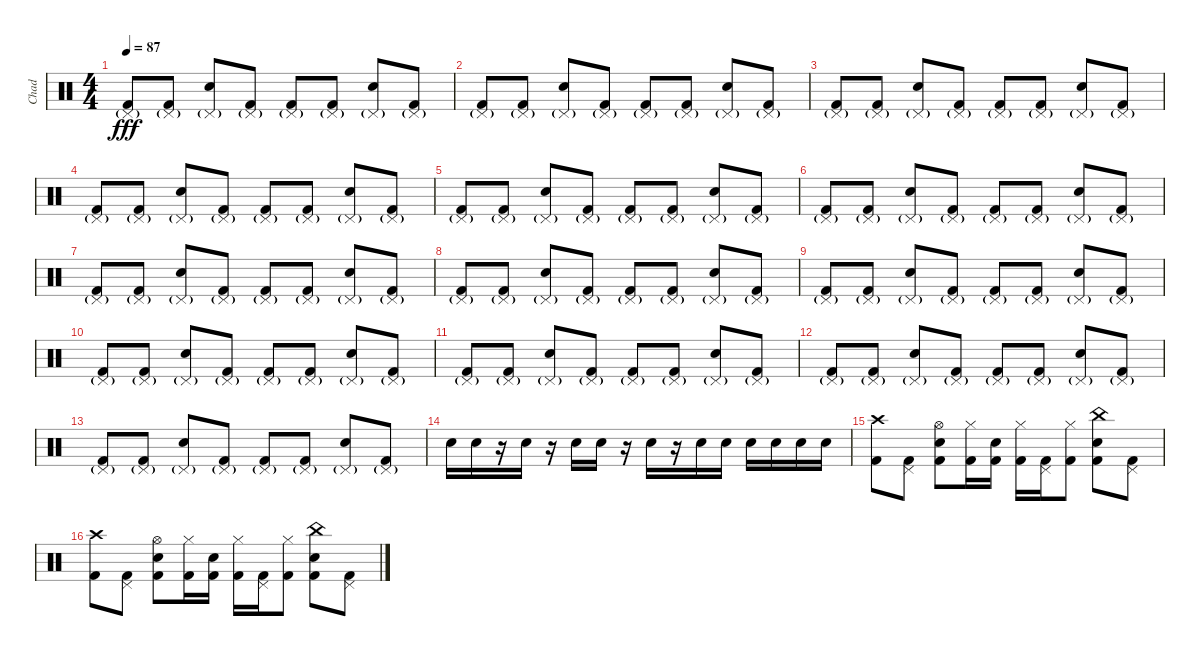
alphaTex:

\track ("Chad" "Chad") {instrument percussion}
\staff {score}
\articulation defaults
\ts (4 4)
\tempo 87
\clef neutral
\ks c
("Pedal Hi-Hat (hit)"{g} "Kick (hit) 2").8{dy fff} ("Pedal Hi-Hat (hit)"{g} "Kick (hit) 2").8 ("Pedal Hi-Hat (hit)"{g} "Snare (hit) 2").8 ("Pedal Hi-Hat (hit)"{g} "Kick (hit) 2").8 ("Pedal Hi-Hat (hit)"{g} "Kick (hit) 2").8 ("Pedal Hi-Hat (hit)"{g} "Kick (hit) 2").8 ("Pedal Hi-Hat (hit)"{g} "Snare (hit) 2").8 ("Pedal Hi-Hat (hit)"{g} "Kick (hit) 2").8 |
("Pedal Hi-Hat (hit)"{g} "Kick (hit) 2").8 ("Pedal Hi-Hat (hit)"{g} "Kick (hit) 2").8 ("Pedal Hi-Hat (hit)"{g} "Snare (hit) 2").8 ("Pedal Hi-Hat (hit)"{g} "Kick (hit) 2").8 ("Pedal Hi-Hat (hit)"{g} "Kick (hit) 2").8 ("Pedal Hi-Hat (hit)"{g} "Kick (hit) 2").8 ("Pedal Hi-Hat (hit)"{g} "Snare (hit) 2").8 ("Pedal Hi-Hat (hit)"{g} "Kick (hit) 2").8 |
("Pedal Hi-Hat (hit)"{g} "Kick (hit) 2").8 ("Pedal Hi-Hat (hit)"{g} "Kick (hit) 2").8 ("Pedal Hi-Hat (hit)"{g} "Snare (hit) 2").8 ("Pedal Hi-Hat (hit)"{g} "Kick (hit) 2").8 ("Pedal Hi-Hat (hit)"{g} "Kick (hit) 2").8 ("Pedal Hi-Hat (hit)"{g} "Kick (hit) 2").8 ("Pedal Hi-Hat (hit)"{g} "Snare (hit) 2").8 ("Pedal Hi-Hat (hit)"{g} "Kick (hit) 2").8 |
("Pedal Hi-Hat (hit)"{g} "Kick (hit) 2").8 ("Pedal Hi-Hat (hit)"{g} "Kick (hit) 2").8 ("Pedal Hi-Hat (hit)"{g} "Snare (hit) 2").8 ("Pedal Hi-Hat (hit)"{g} "Kick (hit) 2").8 ("Pedal Hi-Hat (hit)"{g} "Kick (hit) 2").8 ("Pedal Hi-Hat (hit)"{g} "Kick (hit) 2").8 ("Pedal Hi-Hat (hit)"{g} "Snare (hit) 2").8 ("Pedal Hi-Hat (hit)"{g} "Kick (hit) 2").8 |
("Pedal Hi-Hat (hit)"{g} "Kick (hit) 2").8 ("Pedal Hi-Hat (hit)"{g} "Kick (hit) 2").8 ("Pedal Hi-Hat (hit)"{g} "Snare (hit) 2").8 ("Pedal Hi-Hat (hit)"{g} "Kick (hit) 2").8 ("Pedal Hi-Hat (hit)"{g} "Kick (hit) 2").8 ("Pedal Hi-Hat (hit)"{g} "Kick (hit) 2").8 ("Pedal Hi-Hat (hit)"{g} "Snare (hit) 2").8 ("Pedal Hi-Hat (hit)"{g} "Kick (hit) 2").8 |
("Pedal Hi-Hat (hit)"{g} "Kick (hit) 2").8 ("Pedal Hi-Hat (hit)"{g} "Kick (hit) 2").8 ("Pedal Hi-Hat (hit)"{g} "Snare (hit) 2").8 ("Pedal Hi-Hat (hit)"{g} "Kick (hit) 2").8 ("Pedal Hi-Hat (hit)"{g} "Kick (hit) 2").8 ("Pedal Hi-Hat (hit)"{g} "Kick (hit) 2").8 ("Pedal Hi-Hat (hit)"{g} "Snare (hit) 2").8 ("Pedal Hi-Hat (hit)"{g} "Kick (hit) 2").8 |
("Pedal Hi-Hat (hit)"{g} "Kick (hit) 2").8 ("Pedal Hi-Hat (hit)"{g} "Kick (hit) 2").8 ("Pedal Hi-Hat (hit)"{g} "Snare (hit) 2").8 ("Pedal Hi-Hat (hit)"{g} "Kick (hit) 2").8 ("Pedal Hi-Hat (hit)"{g} "Kick (hit) 2").8 ("Pedal Hi-Hat (hit)"{g} "Kick (hit) 2").8 ("Pedal Hi-Hat (hit)"{g} "Snare (hit) 2").8 ("Pedal Hi-Hat (hit)"{g} "Kick (hit) 2").8 |
("Pedal Hi-Hat (hit)"{g} "Kick (hit) 2").8 ("Pedal Hi-Hat (hit)"{g} "Kick (hit) 2").8 ("Pedal Hi-Hat (hit)"{g} "Snare (hit) 2").8 ("Pedal Hi-Hat (hit)"{g} "Kick (hit) 2").8 ("Pedal Hi-Hat (hit)"{g} "Kick (hit) 2").8 ("Pedal Hi-Hat (hit)"{g} "Kick (hit) 2").8 ("Pedal Hi-Hat (hit)"{g} "Snare (hit) 2").8 ("Pedal Hi-Hat (hit)"{g} "Kick (hit) 2").8 |
("Pedal Hi-Hat (hit)"{g} "Kick (hit) 2").8 ("Pedal Hi-Hat (hit)"{g} "Kick (hit) 2").8 ("Pedal Hi-Hat (hit)"{g} "Snare (hit) 2").8 ("Pedal Hi-Hat (hit)"{g} "Kick (hit) 2").8 ("Pedal Hi-Hat (hit)"{g} "Kick (hit) 2").8 ("Pedal Hi-Hat (hit)"{g} "Kick (hit) 2").8 ("Pedal Hi-Hat (hit)"{g} "Snare (hit) 2").8 ("Pedal Hi-Hat (hit)"{g} "Kick (hit) 2").8 |
("Pedal Hi-Hat (hit)"{g} "Kick (hit) 2").8 ("Pedal Hi-Hat (hit)"{g} "Kick (hit) 2").8 ("Pedal Hi-Hat (hit)"{g} "Snare (hit) 2").8 ("Pedal Hi-Hat (hit)"{g} "Kick (hit) 2").8 ("Pedal Hi-Hat (hit)"{g} "Kick (hit) 2").8 ("Pedal Hi-Hat (hit)"{g} "Kick (hit) 2").8 ("Pedal Hi-Hat (hit)"{g} "Snare (hit) 2").8 ("Pedal Hi-Hat (hit)"{g} "Kick (hit) 2").8 |
("Pedal Hi-Hat (hit)"{g} "Kick (hit) 2").8 ("Pedal Hi-Hat (hit)"{g} "Kick (hit) 2").8 ("Pedal Hi-Hat (hit)"{g} "Snare (hit) 2").8 ("Pedal Hi-Hat (hit)"{g} "Kick (hit) 2").8 ("Pedal Hi-Hat (hit)"{g} "Kick (hit) 2").8 ("Pedal Hi-Hat (hit)"{g} "Kick (hit) 2").8 ("Pedal Hi-Hat (hit)"{g} "Snare (hit) 2").8 ("Pedal Hi-Hat (hit)"{g} "Kick (hit) 2").8 |
("Pedal Hi-Hat (hit)"{g} "Kick (hit) 2").8 ("Pedal Hi-Hat (hit)"{g} "Kick (hit) 2").8 ("Pedal Hi-Hat (hit)"{g} "Snare (hit) 2").8 ("Pedal Hi-Hat (hit)"{g} "Kick (hit) 2").8 ("Pedal Hi-Hat (hit)"{g} "Kick (hit) 2").8 ("Pedal Hi-Hat (hit)"{g} "Kick (hit) 2").8 ("Pedal Hi-Hat (hit)"{g} "Snare (hit) 2").8 ("Pedal Hi-Hat (hit)"{g} "Kick (hit) 2").8 |
("Pedal Hi-Hat (hit)"{g} "Kick (hit) 2").8 ("Pedal Hi-Hat (hit)"{g} "Kick (hit) 2").8 ("Pedal Hi-Hat (hit)"{g} "Snare (hit) 2").8 ("Pedal Hi-Hat (hit)"{g} "Kick (hit) 2").8 ("Pedal Hi-Hat (hit)"{g} "Kick (hit) 2").8 ("Pedal Hi-Hat (hit)"{g} "Kick (hit) 2").8 ("Pedal Hi-Hat (hit)"{g} "Snare (hit) 2").8 ("Pedal Hi-Hat (hit)"{g} "Kick (hit) 2").8 |
"Snare (hit) 2".16 "Snare (hit) 2".16 r.16 "Snare (hit) 2".16 r.16 "Snare (hit) 2".16 "Snare (hit) 2".16 r.16 "Snare (hit) 2".16 r.16 "Snare (hit) 2".16 "Snare (hit) 2".16 "Snare (hit) 2".16 "Snare (hit) 2".16 "Snare (hit) 2".16 "Snare (hit) 2".16 |
("Crash high (hit)" "Kick (hit) 2").8 ("Pedal Hi-Hat (hit)" "Kick (hit) 2").8 ("Hi-Hat (open)" "Snare (hit) 2" "Kick (hit) 2").8 ("Hi-Hat (closed)" "Kick (hit) 2").16 ("Snare (hit) 2" "Kick (hit) 2").16 ("Hi-Hat (closed)" "Kick (hit) 2").16 ("Pedal Hi-Hat (hit)" "Kick (hit) 2").16 ("Hi-Hat (closed)" "Kick (hit) 2").8 ("China (hit)" "Snare (hit) 2" "Kick (hit) 2").8 ("Pedal Hi-Hat (hit)" "Kick (hit) 2").8 |
("Crash high (hit)" "Kick (hit) 2").8 ("Pedal Hi-Hat (hit)" "Kick (hit) 2").8 ("Hi-Hat (open)" "Snare (hit) 2" "Kick (hit) 2").8 ("Hi-Hat (closed)" "Kick (hit) 2").16 ("Snare (hit) 2" "Kick (hit) 2").16 ("Hi-Hat (closed)" "Kick (hit) 2").16 ("Pedal Hi-Hat (hit)" "Kick (hit) 2").16 ("Hi-Hat (closed)" "Kick (hit) 2").8 ("China (hit)" "Snare (hit) 2" "Kick (hit) 2").8 ("Pedal Hi-Hat (hit)" "Kick (hit) 2").8
